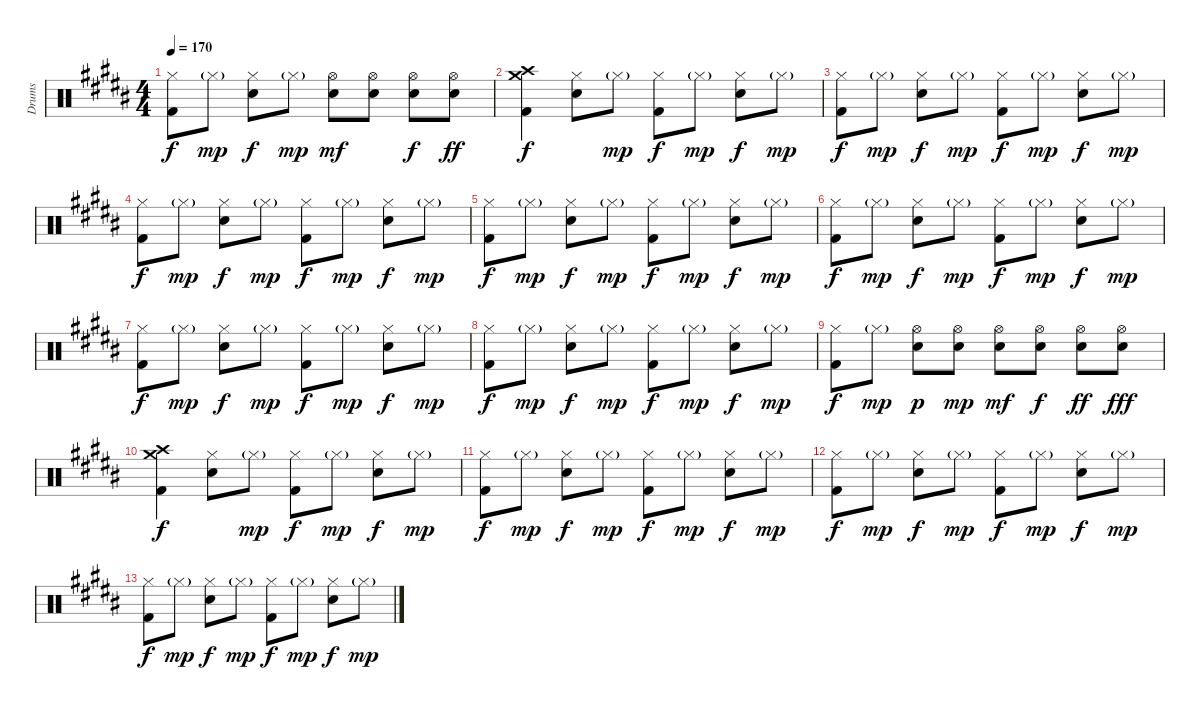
\track ("Drums" "Drums") {instrument percussion}
\staff {score}
\articulation defaults
\ts (4 4)
\tempo 170
\clef neutral
\ks b
("Hi-Hat (closed)" "Kick (hit) 2").8{dy f} "Hi-Hat (closed)"{g}.8{dy mp} ("Hi-Hat (closed)" "Electric Snare (hit)").8{dy f} "Hi-Hat (closed)"{g}.8{dy mp} ("Hi-Hat (open)" "Electric Snare (hit)").8{dy mf} ("Hi-Hat (open)" "Electric Snare (hit)").8 ("Hi-Hat (open)" "Electric Snare (hit)").8{dy f} ("Hi-Hat (open)" "Electric Snare (hit)").8{dy ff} |
("Crash medium (hit)" "Crash high (hit)" "Kick (hit) 2").4{dy f} ("Hi-Hat (closed)" "Electric Snare (hit)").8 "Hi-Hat (closed)"{g}.8{dy mp} ("Hi-Hat (closed)" "Kick (hit) 2").8{dy f} "Hi-Hat (closed)"{g}.8{dy mp} ("Hi-Hat (closed)" "Electric Snare (hit)").8{dy f} "Hi-Hat (closed)"{g}.8{dy mp} |
("Hi-Hat (closed)" "Kick (hit) 2").8{dy f} "Hi-Hat (closed)"{g}.8{dy mp} ("Hi-Hat (closed)" "Electric Snare (hit)").8{dy f} "Hi-Hat (closed)"{g}.8{dy mp} ("Hi-Hat (closed)" "Kick (hit) 2").8{dy f} "Hi-Hat (closed)"{g}.8{dy mp} ("Hi-Hat (closed)" "Electric Snare (hit)").8{dy f} "Hi-Hat (closed)"{g}.8{dy mp} |
("Hi-Hat (closed)" "Kick (hit) 2").8{dy f} "Hi-Hat (closed)"{g}.8{dy mp} ("Hi-Hat (closed)" "Electric Snare (hit)").8{dy f} "Hi-Hat (closed)"{g}.8{dy mp} ("Hi-Hat (closed)" "Kick (hit) 2").8{dy f} "Hi-Hat (closed)"{g}.8{dy mp} ("Hi-Hat (closed)" "Electric Snare (hit)").8{dy f} "Hi-Hat (closed)"{g}.8{dy mp} |
("Hi-Hat (closed)" "Kick (hit) 2").8{dy f} "Hi-Hat (closed)"{g}.8{dy mp} ("Hi-Hat (closed)" "Electric Snare (hit)").8{dy f} "Hi-Hat (closed)"{g}.8{dy mp} ("Hi-Hat (closed)" "Kick (hit) 2").8{dy f} "Hi-Hat (closed)"{g}.8{dy mp} ("Hi-Hat (closed)" "Electric Snare (hit)").8{dy f} "Hi-Hat (closed)"{g}.8{dy mp} |
("Hi-Hat (closed)" "Kick (hit) 2").8{dy f} "Hi-Hat (closed)"{g}.8{dy mp} ("Hi-Hat (closed)" "Electric Snare (hit)").8{dy f} "Hi-Hat (closed)"{g}.8{dy mp} ("Hi-Hat (closed)" "Kick (hit) 2").8{dy f} "Hi-Hat (closed)"{g}.8{dy mp} ("Hi-Hat (closed)" "Electric Snare (hit)").8{dy f} "Hi-Hat (closed)"{g}.8{dy mp} |
("Hi-Hat (closed)" "Kick (hit) 2").8{dy f} "Hi-Hat (closed)"{g}.8{dy mp} ("Hi-Hat (closed)" "Electric Snare (hit)").8{dy f} "Hi-Hat (closed)"{g}.8{dy mp} ("Hi-Hat (closed)" "Kick (hit) 2").8{dy f} "Hi-Hat (closed)"{g}.8{dy mp} ("Hi-Hat (closed)" "Electric Snare (hit)").8{dy f} "Hi-Hat (closed)"{g}.8{dy mp} |
("Hi-Hat (closed)" "Kick (hit) 2").8{dy f} "Hi-Hat (closed)"{g}.8{dy mp} ("Hi-Hat (closed)" "Electric Snare (hit)").8{dy f} "Hi-Hat (closed)"{g}.8{dy mp} ("Hi-Hat (closed)" "Kick (hit) 2").8{dy f} "Hi-Hat (closed)"{g}.8{dy mp} ("Hi-Hat (closed)" "Electric Snare (hit)").8{dy f} "Hi-Hat (closed)"{g}.8{dy mp} |
("Hi-Hat (closed)" "Kick (hit) 2").8{dy f} "Hi-Hat (closed)"{g}.8{dy mp} ("Hi-Hat (open)" "Electric Snare (hit)").8{dy p} ("Hi-Hat (open)" "Electric Snare (hit)").8{dy mp} ("Hi-Hat (open)" "Electric Snare (hit)").8{dy mf} ("Hi-Hat (open)" "Electric Snare (hit)").8{dy f} ("Hi-Hat (open)" "Electric Snare (hit)").8{dy ff} ("Hi-Hat (open)" "Electric Snare (hit)").8{dy fff} |
("Crash medium (hit)" "Crash high (hit)" "Kick (hit) 2").4{dy f} ("Hi-Hat (closed)" "Electric Snare (hit)").8 "Hi-Hat (closed)"{g}.8{dy mp} ("Hi-Hat (closed)" "Kick (hit) 2").8{dy f} "Hi-Hat (closed)"{g}.8{dy mp} ("Hi-Hat (closed)" "Electric Snare (hit)").8{dy f} "Hi-Hat (closed)"{g}.8{dy mp} |
("Hi-Hat (closed)" "Kick (hit) 2").8{dy f} "Hi-Hat (closed)"{g}.8{dy mp} ("Hi-Hat (closed)" "Electric Snare (hit)").8{dy f} "Hi-Hat (closed)"{g}.8{dy mp} ("Hi-Hat (closed)" "Kick (hit) 2").8{dy f} "Hi-Hat (closed)"{g}.8{dy mp} ("Hi-Hat (closed)" "Electric Snare (hit)").8{dy f} "Hi-Hat (closed)"{g}.8{dy mp} |
("Hi-Hat (closed)" "Kick (hit) 2").8{dy f} "Hi-Hat (closed)"{g}.8{dy mp} ("Hi-Hat (closed)" "Electric Snare (hit)").8{dy f} "Hi-Hat (closed)"{g}.8{dy mp} ("Hi-Hat (closed)" "Kick (hit) 2").8{dy f} "Hi-Hat (closed)"{g}.8{dy mp} ("Hi-Hat (closed)" "Electric Snare (hit)").8{dy f} "Hi-Hat (closed)"{g}.8{dy mp} |
("Hi-Hat (closed)" "Kick (hit) 2").8{dy f} "Hi-Hat (closed)"{g}.8{dy mp} ("Hi-Hat (closed)" "Electric Snare (hit)").8{dy f} "Hi-Hat (closed)"{g}.8{dy mp} ("Hi-Hat (closed)" "Kick (hit) 2").8{dy f} "Hi-Hat (closed)"{g}.8{dy mp} ("Hi-Hat (closed)" "Electric Snare (hit)").8{dy f} "Hi-Hat (closed)"{g}.8{dy mp}
